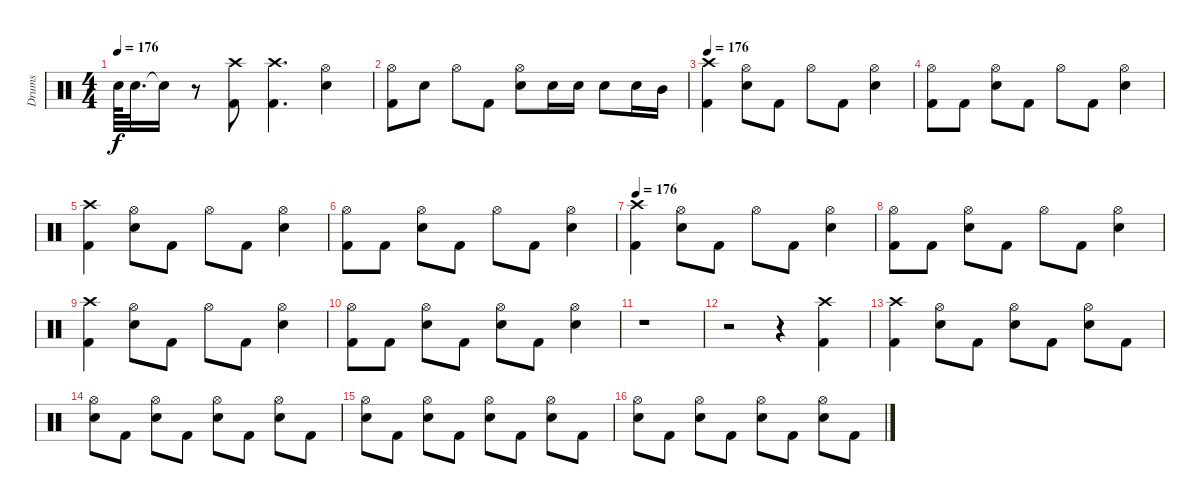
\track ("Drums" "Drums") {instrument percussion}
\staff {score}
\articulation defaults
\ts (4 4)
\tempo 176
\clef neutral
\ks c "Electric Snare (hit)".64{dy f} "Electric Snare (hit)".32{d} "Snare (hit)"{t}.16
r.8 ("Crash high (hit)" "Kick (hit) 2").8 ("Crash high (hit)" "Kick (hit) 2").4{d} ("Hi-Hat (open)" "Electric Snare (hit)").4 |
("Hi-Hat (open)" "Kick (hit) 2").8 "Electric Snare (hit)".8 "Hi-Hat (open)".8 "Kick (hit) 2".8 ("Hi-Hat (open)" "Electric Snare (hit)").8 "Electric Snare (hit)".16 "Electric Snare (hit)".16 "Electric Snare (hit)".8 "Electric Snare (hit)".16 "Mid Tom (hit)".16 |
\tempo 176
("Crash high (hit)" "Kick (hit) 2").4 ("Hi-Hat (open)" "Electric Snare (hit)").8 "Kick (hit) 2".8 "Hi-Hat (open)".8 "Kick (hit) 2".8 ("Hi-Hat (open)" "Electric Snare (hit)").4 |
("Hi-Hat (open)" "Kick (hit) 2").8 "Kick (hit) 2".8 ("Hi-Hat (open)" "Electric Snare (hit)").8 "Kick (hit) 2".8 "Hi-Hat (open)".8 "Kick (hit) 2".8 ("Hi-Hat (open)" "Electric Snare (hit)").4 |
("Crash high (hit)" "Kick (hit) 2").4 ("Hi-Hat (open)" "Electric Snare (hit)").8 "Kick (hit) 2".8 "Hi-Hat (open)".8 "Kick (hit) 2".8 ("Hi-Hat (open)" "Electric Snare (hit)").4 |
("Hi-Hat (open)" "Kick (hit) 2").8 "Kick (hit) 2".8 ("Hi-Hat (open)" "Electric Snare (hit)").8 "Kick (hit) 2".8 "Hi-Hat (open)".8 "Kick (hit) 2".8 ("Hi-Hat (open)" "Electric Snare (hit)").4 |
\tempo 176
("Crash high (hit)" "Kick (hit) 2").4 ("Hi-Hat (open)" "Electric Snare (hit)").8 "Kick (hit) 2".8 "Hi-Hat (open)".8 "Kick (hit) 2".8 ("Hi-Hat (open)" "Electric Snare (hit)").4 |
("Hi-Hat (open)" "Kick (hit) 2").8 "Kick (hit) 2".8 ("Hi-Hat (open)" "Electric Snare (hit)").8 "Kick (hit) 2".8 "Hi-Hat (open)".8 "Kick (hit) 2".8 ("Hi-Hat (open)" "Electric Snare (hit)").4 |
("Crash high (hit)" "Kick (hit) 2").4 ("Hi-Hat (open)" "Electric Snare (hit)").8 "Kick (hit) 2".8 "Hi-Hat (open)".8 "Kick (hit) 2".8 ("Hi-Hat (open)" "Electric Snare (hit)").4 |
("Hi-Hat (open)" "Kick (hit) 2").8 "Kick (hit) 2".8 ("Hi-Hat (open)" "Electric Snare (hit)").8 "Kick (hit) 2".8 ("Hi-Hat (open)" "Electric Snare (hit)").8 "Kick (hit) 2".8 ("Hi-Hat (open)" "Electric Snare (hit)").4 |
\section ("" "")
r.1 |
r.2 r.4 ("Crash high (hit)" "Kick (hit) 2").4 |
("Crash high (hit)" "Kick (hit) 2").4 ("Hi-Hat (open)" "Electric Snare (hit)").8 "Kick (hit) 2".8 ("Hi-Hat (open)" "Electric Snare (hit)").8 "Kick (hit) 2".8 ("Hi-Hat (open)" "Electric Snare (hit)").8 "Kick (hit) 2".8 |
("Hi-Hat (open)" "Electric Snare (hit)").8 "Kick (hit) 2".8 ("Hi-Hat (open)" "Electric Snare (hit)").8 "Kick (hit) 2".8 ("Hi-Hat (open)" "Electric Snare (hit)").8 "Kick (hit) 2".8 ("Hi-Hat (open)" "Electric Snare (hit)").8 "Kick (hit) 2".8 |
("Hi-Hat (open)" "Electric Snare (hit)").8 "Kick (hit) 2".8 ("Hi-Hat (open)" "Electric Snare (hit)").8 "Kick (hit) 2".8 ("Hi-Hat (open)" "Electric Snare (hit)").8 "Kick (hit) 2".8 ("Hi-Hat (open)" "Electric Snare (hit)").8 "Kick (hit) 2".8 |
("Hi-Hat (open)" "Electric Snare (hit)").8 "Kick (hit) 2".8 ("Hi-Hat (open)" "Electric Snare (hit)").8 "Kick (hit) 2".8 ("Hi-Hat (open)" "Electric Snare (hit)").8 "Kick (hit) 2".8 ("Hi-Hat (open)" "Electric Snare (hit)").8 "Kick (hit) 2".8
